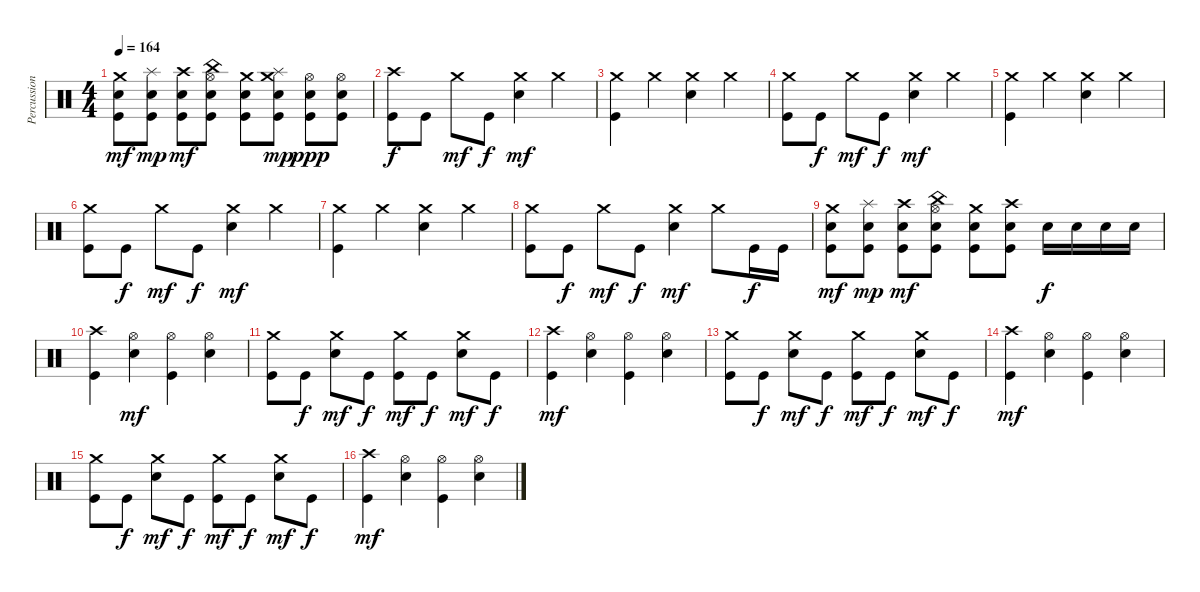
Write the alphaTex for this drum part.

\track ("Percussion" "Percussion") {instrument percussion}
\staff {score}
\articulation defaults
\ts (4 4)
\tempo 164
\clef neutral
\ks c
("Kick (hit)" "Electric Snare (hit)" "Crash medium (hit)").8{dy mf} ("Kick (hit)" "Electric Snare (hit)" "Splash (hit)").8{dy mp} ("Kick (hit)" "Electric Snare (hit)" "Crash high (hit)").8{dy mf} ("Kick (hit)" "Electric Snare (hit)" "Hi-Hat (open)" "China (hit)").8 ("Kick (hit)" "Electric Snare (hit)" "Crash medium (hit)").8 ("Kick (hit)" "Electric Snare (hit)" "Crash medium (hit)" "Splash (hit)").8{dy mp} ("Kick (hit)" "Electric Snare (hit)" "Hi-Hat (open)").8{dy ppp} ("Kick (hit)" "Electric Snare (hit)" "Hi-Hat (open)").8 |
("Kick (hit)" "Crash high (hit)").8{dy f} "Kick (hit)".8 "Crash medium (hit)".8{dy mf} "Kick (hit)".8{dy f} ("Electric Snare (hit)" "Crash medium (hit)").4{dy mf} "Crash medium (hit)".4 |
("Kick (hit)" "Crash medium (hit)").4 "Crash medium (hit)".4 ("Electric Snare (hit)" "Crash medium (hit)").4 "Crash medium (hit)".4 |
("Kick (hit)" "Crash medium (hit)").8 "Kick (hit)".8{dy f} "Crash medium (hit)".8{dy mf} "Kick (hit)".8{dy f} ("Electric Snare (hit)" "Crash medium (hit)").4{dy mf} "Crash medium (hit)".4 |
("Kick (hit)" "Crash medium (hit)").4 "Crash medium (hit)".4 ("Electric Snare (hit)" "Crash medium (hit)").4 "Crash medium (hit)".4 |
("Kick (hit)" "Crash medium (hit)").8 "Kick (hit)".8{dy f} "Crash medium (hit)".8{dy mf} "Kick (hit)".8{dy f} ("Electric Snare (hit)" "Crash medium (hit)").4{dy mf} "Crash medium (hit)".4 |
("Kick (hit)" "Crash medium (hit)").4 "Crash medium (hit)".4 ("Electric Snare (hit)" "Crash medium (hit)").4 "Crash medium (hit)".4 |
("Kick (hit)" "Crash medium (hit)").8 "Kick (hit)".8{dy f} "Crash medium (hit)".8{dy mf} "Kick (hit)".8{dy f} ("Electric Snare (hit)" "Crash medium (hit)").4{dy mf} "Crash medium (hit)".8 "Kick (hit)".16{dy f} "Kick (hit)".16 |
("Kick (hit)" "Electric Snare (hit)" "Crash medium (hit)").8{dy mf} ("Kick (hit)" "Electric Snare (hit)" "Splash (hit)").8{dy mp} ("Kick (hit)" "Electric Snare (hit)" "Crash high (hit)").8{dy mf} ("Kick (hit)" "Electric Snare (hit)" "Hi-Hat (open)" "China (hit)").8 ("Kick (hit)" "Electric Snare (hit)" "Crash medium (hit)").8 ("Kick (hit)" "Electric Snare (hit)" "Crash high (hit)").8 "Electric Snare (hit)".16{dy f} "Electric Snare (hit)".16 "Electric Snare (hit)".16 "Electric Snare (hit)".16 |
("Kick (hit)" "Crash high (hit)").4 ("Electric Snare (hit)" "Hi-Hat (open)").4{dy mf} ("Kick (hit)" "Hi-Hat (open)").4 ("Electric Snare (hit)" "Hi-Hat (open)").4 |
("Kick (hit)" "Crash medium (hit)").8 "Kick (hit)".8{dy f} ("Electric Snare (hit)" "Crash medium (hit)").8{dy mf} "Kick (hit)".8{dy f} ("Kick (hit)" "Crash medium (hit)").8{dy mf} "Kick (hit)".8{dy f} ("Electric Snare (hit)" "Crash medium (hit)").8{dy mf} "Kick (hit)".8{dy f} |
("Kick (hit)" "Crash high (hit)").4{dy mf} ("Electric Snare (hit)" "Hi-Hat (open)").4 ("Kick (hit)" "Hi-Hat (open)").4 ("Electric Snare (hit)" "Hi-Hat (open)").4 |
("Kick (hit)" "Crash medium (hit)").8 "Kick (hit)".8{dy f} ("Electric Snare (hit)" "Crash medium (hit)").8{dy mf} "Kick (hit)".8{dy f} ("Kick (hit)" "Crash medium (hit)").8{dy mf} "Kick (hit)".8{dy f} ("Electric Snare (hit)" "Crash medium (hit)").8{dy mf} "Kick (hit)".8{dy f} |
("Kick (hit)" "Crash high (hit)").4{dy mf} ("Electric Snare (hit)" "Hi-Hat (open)").4 ("Kick (hit)" "Hi-Hat (open)").4 ("Electric Snare (hit)" "Hi-Hat (open)").4 |
("Kick (hit)" "Crash medium (hit)").8 "Kick (hit)".8{dy f} ("Electric Snare (hit)" "Crash medium (hit)").8{dy mf} "Kick (hit)".8{dy f} ("Kick (hit)" "Crash medium (hit)").8{dy mf} "Kick (hit)".8{dy f} ("Electric Snare (hit)" "Crash medium (hit)").8{dy mf} "Kick (hit)".8{dy f} |
("Kick (hit)" "Crash high (hit)").4{dy mf} ("Electric Snare (hit)" "Hi-Hat (open)").4 ("Kick (hit)" "Hi-Hat (open)").4 ("Electric Snare (hit)" "Hi-Hat (open)").4
